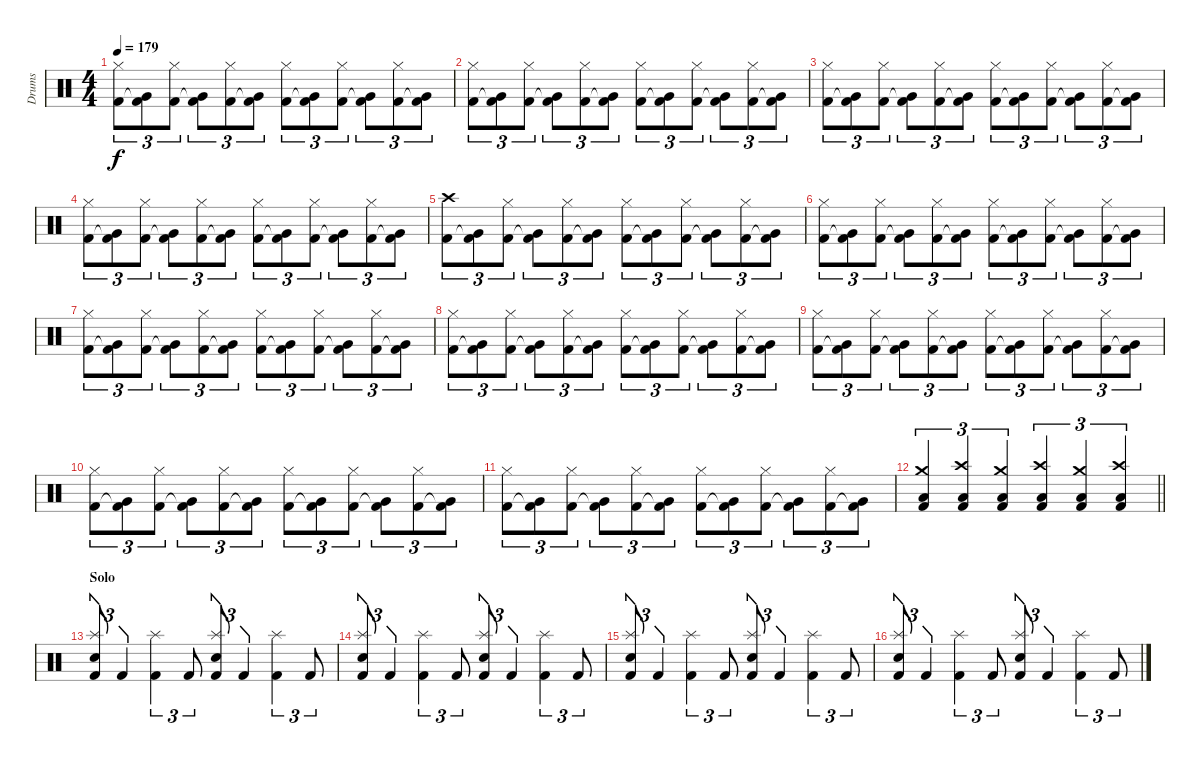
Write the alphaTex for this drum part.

\track ("Drums" "Drums") {instrument percussion}
\staff {score}
\articulation defaults
\ts (4 4)
\tempo 179
\clef neutral
\ks c
("Hi-Hat (closed)" "Kick (hit) 2").8{tu (3 2) dy f} ("Very Low Tom (hit)" "Kick (hit) 2"{t}).8{tu (3 2)} ("Hi-Hat (closed)" "Kick (hit) 2").8{tu (3 2)} ("Very Low Tom (hit)" "Kick (hit) 2"{t}).8{tu (3 2)} ("Hi-Hat (closed)" "Kick (hit) 2").8{tu (3 2)} ("Very Low Tom (hit)" "Kick (hit) 2"{t}).8{tu (3 2)} ("Hi-Hat (closed)" "Kick (hit) 2").8{tu (3 2)} ("Very Low Tom (hit)" "Kick (hit) 2"{t}).8{tu (3 2)} ("Hi-Hat (closed)" "Kick (hit) 2").8{tu (3 2)} ("Very Low Tom (hit)" "Kick (hit) 2"{t}).8{tu (3 2)} ("Hi-Hat (closed)" "Kick (hit) 2").8{tu (3 2)} ("Very Low Tom (hit)" "Kick (hit) 2"{t}).8{tu (3 2)} |
("Hi-Hat (closed)" "Kick (hit) 2").8{tu (3 2)} ("Very Low Tom (hit)" "Kick (hit) 2"{t}).8{tu (3 2)} ("Hi-Hat (closed)" "Kick (hit) 2").8{tu (3 2)} ("Very Low Tom (hit)" "Kick (hit) 2"{t}).8{tu (3 2)} ("Hi-Hat (closed)" "Kick (hit) 2").8{tu (3 2)} ("Very Low Tom (hit)" "Kick (hit) 2"{t}).8{tu (3 2)} ("Hi-Hat (closed)" "Kick (hit) 2").8{tu (3 2)} ("Very Low Tom (hit)" "Kick (hit) 2"{t}).8{tu (3 2)} ("Hi-Hat (closed)" "Kick (hit) 2").8{tu (3 2)} ("Very Low Tom (hit)" "Kick (hit) 2"{t}).8{tu (3 2)} ("Hi-Hat (closed)" "Kick (hit) 2").8{tu (3 2)} ("Very Low Tom (hit)" "Kick (hit) 2"{t}).8{tu (3 2)} |
("Hi-Hat (closed)" "Kick (hit) 2").8{tu (3 2)} ("Very Low Tom (hit)" "Kick (hit) 2"{t}).8{tu (3 2)} ("Hi-Hat (closed)" "Kick (hit) 2").8{tu (3 2)} ("Very Low Tom (hit)" "Kick (hit) 2"{t}).8{tu (3 2)} ("Hi-Hat (closed)" "Kick (hit) 2").8{tu (3 2)} ("Very Low Tom (hit)" "Kick (hit) 2"{t}).8{tu (3 2)} ("Hi-Hat (closed)" "Kick (hit) 2").8{tu (3 2)} ("Very Low Tom (hit)" "Kick (hit) 2"{t}).8{tu (3 2)} ("Hi-Hat (closed)" "Kick (hit) 2").8{tu (3 2)} ("Very Low Tom (hit)" "Kick (hit) 2"{t}).8{tu (3 2)} ("Hi-Hat (closed)" "Kick (hit) 2").8{tu (3 2)} ("Very Low Tom (hit)" "Kick (hit) 2"{t}).8{tu (3 2)} |
("Hi-Hat (closed)" "Kick (hit) 2").8{tu (3 2)} ("Very Low Tom (hit)" "Kick (hit) 2"{t}).8{tu (3 2)} ("Hi-Hat (closed)" "Kick (hit) 2").8{tu (3 2)} ("Very Low Tom (hit)" "Kick (hit) 2"{t}).8{tu (3 2)} ("Hi-Hat (closed)" "Kick (hit) 2").8{tu (3 2)} ("Very Low Tom (hit)" "Kick (hit) 2"{t}).8{tu (3 2)} ("Hi-Hat (closed)" "Kick (hit) 2").8{tu (3 2)} ("Very Low Tom (hit)" "Kick (hit) 2"{t}).8{tu (3 2)} ("Hi-Hat (closed)" "Kick (hit) 2").8{tu (3 2)} ("Very Low Tom (hit)" "Kick (hit) 2"{t}).8{tu (3 2)} ("Hi-Hat (closed)" "Kick (hit) 2").8{tu (3 2)} ("Very Low Tom (hit)" "Kick (hit) 2"{t}).8{tu (3 2)} |
("Crash high (hit)" "Kick (hit) 2").8{tu (3 2)} ("Very Low Tom (hit)" "Kick (hit) 2"{t}).8{tu (3 2)} ("Hi-Hat (closed)" "Kick (hit) 2").8{tu (3 2)} ("Very Low Tom (hit)" "Kick (hit) 2"{t}).8{tu (3 2)} ("Hi-Hat (closed)" "Kick (hit) 2").8{tu (3 2)} ("Very Low Tom (hit)" "Kick (hit) 2"{t}).8{tu (3 2)} ("Hi-Hat (closed)" "Kick (hit) 2").8{tu (3 2)} ("Very Low Tom (hit)" "Kick (hit) 2"{t}).8{tu (3 2)} ("Hi-Hat (closed)" "Kick (hit) 2").8{tu (3 2)} ("Very Low Tom (hit)" "Kick (hit) 2"{t}).8{tu (3 2)} ("Hi-Hat (closed)" "Kick (hit) 2").8{tu (3 2)} ("Very Low Tom (hit)" "Kick (hit) 2"{t}).8{tu (3 2)} |
("Hi-Hat (closed)" "Kick (hit) 2").8{tu (3 2)} ("Very Low Tom (hit)" "Kick (hit) 2"{t}).8{tu (3 2)} ("Hi-Hat (closed)" "Kick (hit) 2").8{tu (3 2)} ("Very Low Tom (hit)" "Kick (hit) 2"{t}).8{tu (3 2)} ("Hi-Hat (closed)" "Kick (hit) 2").8{tu (3 2)} ("Very Low Tom (hit)" "Kick (hit) 2"{t}).8{tu (3 2)} ("Hi-Hat (closed)" "Kick (hit) 2").8{tu (3 2)} ("Very Low Tom (hit)" "Kick (hit) 2"{t}).8{tu (3 2)} ("Hi-Hat (closed)" "Kick (hit) 2").8{tu (3 2)} ("Very Low Tom (hit)" "Kick (hit) 2"{t}).8{tu (3 2)} ("Hi-Hat (closed)" "Kick (hit) 2").8{tu (3 2)} ("Very Low Tom (hit)" "Kick (hit) 2"{t}).8{tu (3 2)} |
("Hi-Hat (closed)" "Kick (hit) 2").8{tu (3 2)} ("Very Low Tom (hit)" "Kick (hit) 2"{t}).8{tu (3 2)} ("Hi-Hat (closed)" "Kick (hit) 2").8{tu (3 2)} ("Very Low Tom (hit)" "Kick (hit) 2"{t}).8{tu (3 2)} ("Hi-Hat (closed)" "Kick (hit) 2").8{tu (3 2)} ("Very Low Tom (hit)" "Kick (hit) 2"{t}).8{tu (3 2)} ("Hi-Hat (closed)" "Kick (hit) 2").8{tu (3 2)} ("Very Low Tom (hit)" "Kick (hit) 2"{t}).8{tu (3 2)} ("Hi-Hat (closed)" "Kick (hit) 2").8{tu (3 2)} ("Very Low Tom (hit)" "Kick (hit) 2"{t}).8{tu (3 2)} ("Hi-Hat (closed)" "Kick (hit) 2").8{tu (3 2)} ("Very Low Tom (hit)" "Kick (hit) 2"{t}).8{tu (3 2)} |
("Hi-Hat (closed)" "Kick (hit) 2").8{tu (3 2)} ("Very Low Tom (hit)" "Kick (hit) 2"{t}).8{tu (3 2)} ("Hi-Hat (closed)" "Kick (hit) 2").8{tu (3 2)} ("Very Low Tom (hit)" "Kick (hit) 2"{t}).8{tu (3 2)} ("Hi-Hat (closed)" "Kick (hit) 2").8{tu (3 2)} ("Very Low Tom (hit)" "Kick (hit) 2"{t}).8{tu (3 2)} ("Hi-Hat (closed)" "Kick (hit) 2").8{tu (3 2)} ("Very Low Tom (hit)" "Kick (hit) 2"{t}).8{tu (3 2)} ("Hi-Hat (closed)" "Kick (hit) 2").8{tu (3 2)} ("Very Low Tom (hit)" "Kick (hit) 2"{t}).8{tu (3 2)} ("Hi-Hat (closed)" "Kick (hit) 2").8{tu (3 2)} ("Very Low Tom (hit)" "Kick (hit) 2"{t}).8{tu (3 2)} |
("Hi-Hat (closed)" "Kick (hit) 2").8{tu (3 2)} ("Very Low Tom (hit)" "Kick (hit) 2"{t}).8{tu (3 2)} ("Hi-Hat (closed)" "Kick (hit) 2").8{tu (3 2)} ("Very Low Tom (hit)" "Kick (hit) 2"{t}).8{tu (3 2)} ("Hi-Hat (closed)" "Kick (hit) 2").8{tu (3 2)} ("Very Low Tom (hit)" "Kick (hit) 2"{t}).8{tu (3 2)} ("Hi-Hat (closed)" "Kick (hit) 2").8{tu (3 2)} ("Very Low Tom (hit)" "Kick (hit) 2"{t}).8{tu (3 2)} ("Hi-Hat (closed)" "Kick (hit) 2").8{tu (3 2)} ("Very Low Tom (hit)" "Kick (hit) 2"{t}).8{tu (3 2)} ("Hi-Hat (closed)" "Kick (hit) 2").8{tu (3 2)} ("Very Low Tom (hit)" "Kick (hit) 2"{t}).8{tu (3 2)} |
("Hi-Hat (closed)" "Kick (hit) 2").8{tu (3 2)} ("Very Low Tom (hit)" "Kick (hit) 2"{t}).8{tu (3 2)} ("Hi-Hat (closed)" "Kick (hit) 2").8{tu (3 2)} ("Very Low Tom (hit)" "Kick (hit) 2"{t}).8{tu (3 2)} ("Hi-Hat (closed)" "Kick (hit) 2").8{tu (3 2)} ("Very Low Tom (hit)" "Kick (hit) 2"{t}).8{tu (3 2)} ("Hi-Hat (closed)" "Kick (hit) 2").8{tu (3 2)} ("Very Low Tom (hit)" "Kick (hit) 2"{t}).8{tu (3 2)} ("Hi-Hat (closed)" "Kick (hit) 2").8{tu (3 2)} ("Very Low Tom (hit)" "Kick (hit) 2"{t}).8{tu (3 2)} ("Hi-Hat (closed)" "Kick (hit) 2").8{tu (3 2)} ("Very Low Tom (hit)" "Kick (hit) 2"{t}).8{tu (3 2)} |
("Hi-Hat (closed)" "Kick (hit) 2").8{tu (3 2)} ("Very Low Tom (hit)" "Kick (hit) 2"{t}).8{tu (3 2)} ("Hi-Hat (closed)" "Kick (hit) 2").8{tu (3 2)} ("Very Low Tom (hit)" "Kick (hit) 2"{t}).8{tu (3 2)} ("Hi-Hat (closed)" "Kick (hit) 2").8{tu (3 2)} ("Very Low Tom (hit)" "Kick (hit) 2"{t}).8{tu (3 2)} ("Hi-Hat (closed)" "Kick (hit) 2").8{tu (3 2)} ("Very Low Tom (hit)" "Kick (hit) 2"{t}).8{tu (3 2)} ("Hi-Hat (closed)" "Kick (hit) 2").8{tu (3 2)} ("Very Low Tom (hit)" "Kick (hit) 2"{t}).8{tu (3 2)} ("Hi-Hat (closed)" "Kick (hit) 2").8{tu (3 2)} ("Very Low Tom (hit)" "Kick (hit) 2"{t}).8{tu (3 2)} |
\barLineRight lightlight
("Crash medium (hit)" "Low Floor Tom (hit)" "Kick (hit) 2").4{tu (3 2)} ("Crash high (hit)" "Low Floor Tom (hit)" "Kick (hit) 2").4{tu (3 2)} ("Crash medium (hit)" "Low Floor Tom (hit)" "Kick (hit) 2").4{tu (3 2)} ("Crash high (hit)" "Low Floor Tom (hit)" "Kick (hit) 2").4{tu (3 2)} ("Crash medium (hit)" "Low Floor Tom (hit)" "Kick (hit) 2").4{tu (3 2)} ("Crash high (hit)" "Low Floor Tom (hit)" "Kick (hit) 2").4{tu (3 2)} |
\section ("" "Solo")
("Splash (hit)" "Electric Snare (hit)" "Kick (hit) 2").8{tu (3 2)} "Kick (hit) 2".4{tu (3 2)} ("Splash (hit)" "Kick (hit) 2").4{tu (3 2)} "Kick (hit) 2".8{tu (3 2)} ("Splash (hit)" "Electric Snare (hit)" "Kick (hit) 2").8{tu (3 2)} "Kick (hit) 2".4{tu (3 2)} ("Splash (hit)" "Kick (hit) 2").4{tu (3 2)} "Kick (hit) 2".8{tu (3 2)} |
("Splash (hit)" "Electric Snare (hit)" "Kick (hit) 2").8{tu (3 2)} "Kick (hit) 2".4{tu (3 2)} ("Splash (hit)" "Kick (hit) 2").4{tu (3 2)} "Kick (hit) 2".8{tu (3 2)} ("Splash (hit)" "Electric Snare (hit)" "Kick (hit) 2").8{tu (3 2)} "Kick (hit) 2".4{tu (3 2)} ("Splash (hit)" "Kick (hit) 2").4{tu (3 2)} "Kick (hit) 2".8{tu (3 2)} |
("Splash (hit)" "Electric Snare (hit)" "Kick (hit) 2").8{tu (3 2)} "Kick (hit) 2".4{tu (3 2)} ("Splash (hit)" "Kick (hit) 2").4{tu (3 2)} "Kick (hit) 2".8{tu (3 2)} ("Splash (hit)" "Electric Snare (hit)" "Kick (hit) 2").8{tu (3 2)} "Kick (hit) 2".4{tu (3 2)} ("Splash (hit)" "Kick (hit) 2").4{tu (3 2)} "Kick (hit) 2".8{tu (3 2)} |
("Splash (hit)" "Electric Snare (hit)" "Kick (hit) 2").8{tu (3 2)} "Kick (hit) 2".4{tu (3 2)} ("Splash (hit)" "Kick (hit) 2").4{tu (3 2)} "Kick (hit) 2".8{tu (3 2)} ("Splash (hit)" "Electric Snare (hit)" "Kick (hit) 2").8{tu (3 2)} "Kick (hit) 2".4{tu (3 2)} ("Splash (hit)" "Kick (hit) 2").4{tu (3 2)} "Kick (hit) 2".8{tu (3 2)}
